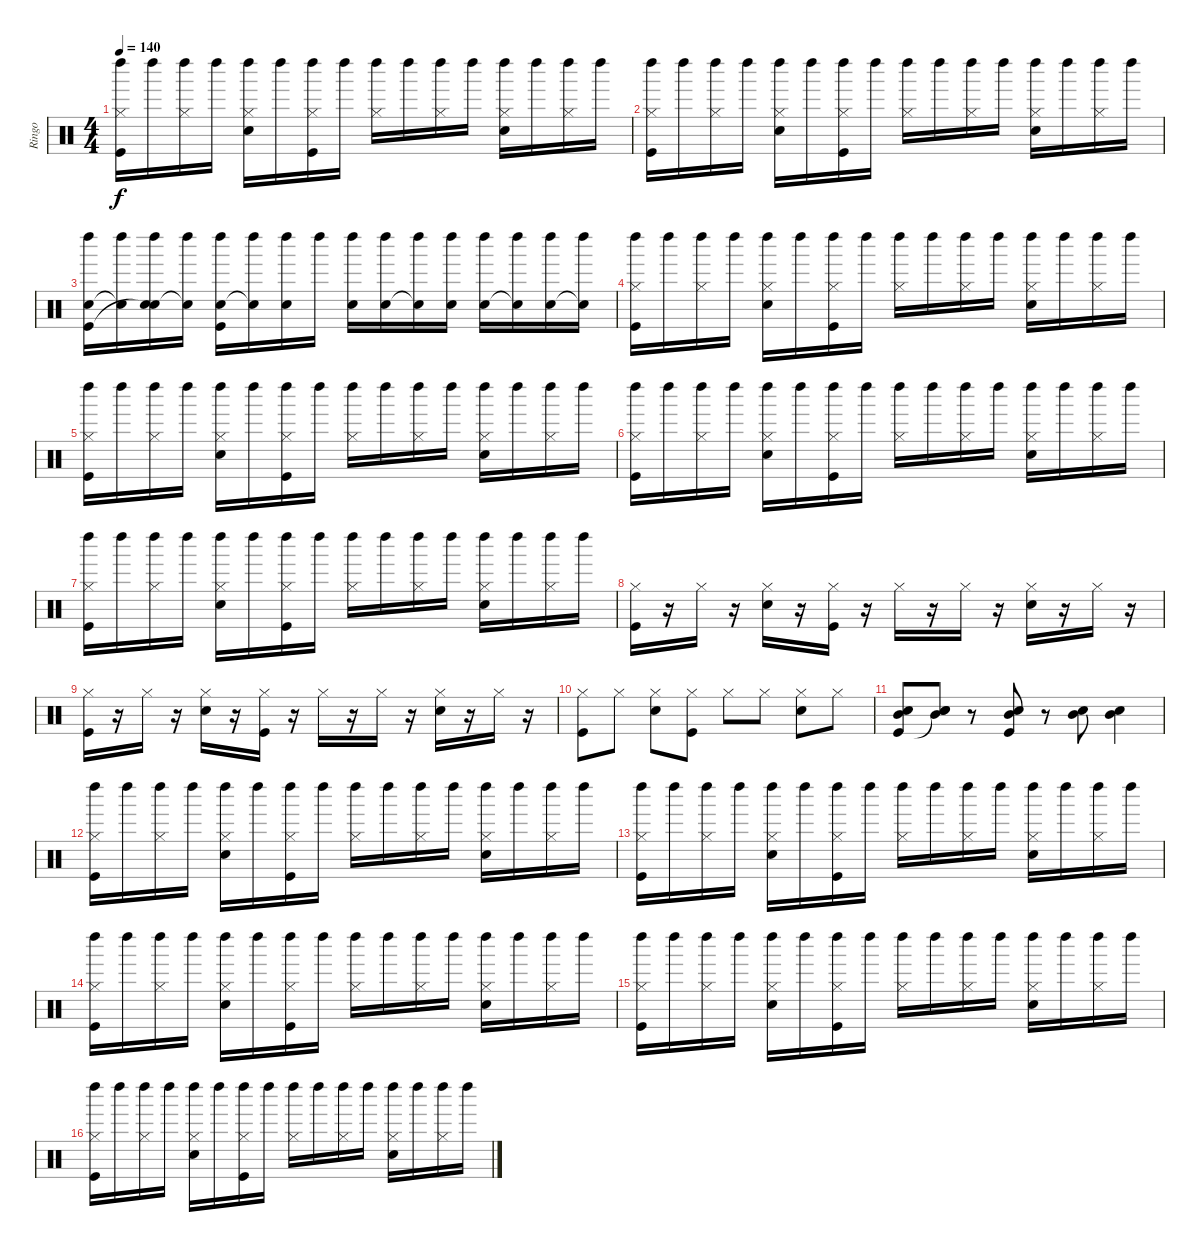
\track ("Ringo" "Ringo") {instrument percussion}
\staff {score}
\articulation defaults
\ts (4 4)
\tempo 140
\clef neutral
\ks c
("Left Maraca (hit)" "Hi-Hat (closed)" "Kick (hit)").16{dy f} "Left Maraca (hit)".16 ("Left Maraca (hit)" "Hi-Hat (closed)").16 "Left Maraca (hit)".16 ("Left Maraca (hit)" "Hi-Hat (closed)" "Snare (hit) 2").16 "Left Maraca (hit)".16 ("Left Maraca (hit)" "Hi-Hat (closed)" "Kick (hit)").16 "Left Maraca (hit)".16 ("Left Maraca (hit)" "Hi-Hat (closed)").16 "Left Maraca (hit)".16 ("Left Maraca (hit)" "Hi-Hat (closed)").16 "Left Maraca (hit)".16 ("Left Maraca (hit)" "Hi-Hat (closed)" "Snare (hit) 2").16 "Left Maraca (hit)".16 ("Left Maraca (hit)" "Hi-Hat (closed)").16 "Left Maraca (hit)".16 |
("Left Maraca (hit)" "Hi-Hat (closed)" "Kick (hit)").16 "Left Maraca (hit)".16 ("Left Maraca (hit)" "Hi-Hat (closed)").16 "Left Maraca (hit)".16 ("Left Maraca (hit)" "Hi-Hat (closed)" "Snare (hit) 2").16 "Left Maraca (hit)".16 ("Left Maraca (hit)" "Hi-Hat (closed)" "Kick (hit)").16 "Left Maraca (hit)".16 ("Left Maraca (hit)" "Hi-Hat (closed)").16 "Left Maraca (hit)".16 ("Left Maraca (hit)" "Hi-Hat (closed)").16 "Left Maraca (hit)".16 ("Left Maraca (hit)" "Hi-Hat (closed)" "Snare (hit) 2").16 "Left Maraca (hit)".16 ("Left Maraca (hit)" "Hi-Hat (closed)").16 "Left Maraca (hit)".16 |
("Left Maraca (hit)" "Snare (hit) 2" "Kick (hit)").16 ("Left Maraca (hit)" "Snare (hit)"{t}).16 ("Left Maraca (hit)" "Snare (hit) 2" "Snare (hit)"{t}).16 ("Left Maraca (hit)" "Snare (hit)"{t}).16 ("Left Maraca (hit)" "Snare (hit) 2" "Kick (hit)").16 ("Left Maraca (hit)" "Snare (hit)"{t}).16 ("Left Maraca (hit)" "Snare (hit) 2").16 "Left Maraca (hit)".16 ("Left Maraca (hit)" "Snare (hit) 2").16 ("Left Maraca (hit)" "Snare (hit) 2").16 ("Left Maraca (hit)" "Snare (hit) 2"{t}).16 ("Left Maraca (hit)" "Snare (hit) 2").16 ("Left Maraca (hit)" "Snare (hit) 2").16 ("Left Maraca (hit)" "Snare (hit)"{t}).16 ("Left Maraca (hit)" "Snare (hit) 2").16 ("Left Maraca (hit)" "Snare (hit)"{t}).16 |
("Left Maraca (hit)" "Hi-Hat (closed)" "Kick (hit)").16 "Left Maraca (hit)".16 ("Left Maraca (hit)" "Hi-Hat (closed)").16 "Left Maraca (hit)".16 ("Left Maraca (hit)" "Hi-Hat (closed)" "Snare (hit) 2").16 "Left Maraca (hit)".16 ("Left Maraca (hit)" "Hi-Hat (closed)" "Kick (hit)").16 "Left Maraca (hit)".16 ("Left Maraca (hit)" "Hi-Hat (closed)").16 "Left Maraca (hit)".16 ("Left Maraca (hit)" "Hi-Hat (closed)").16 "Left Maraca (hit)".16 ("Left Maraca (hit)" "Hi-Hat (closed)" "Snare (hit) 2").16 "Left Maraca (hit)".16 ("Left Maraca (hit)" "Hi-Hat (closed)").16 "Left Maraca (hit)".16 |
("Left Maraca (hit)" "Hi-Hat (closed)" "Kick (hit)").16 "Left Maraca (hit)".16 ("Left Maraca (hit)" "Hi-Hat (closed)").16 "Left Maraca (hit)".16 ("Left Maraca (hit)" "Hi-Hat (closed)" "Snare (hit) 2").16 "Left Maraca (hit)".16 ("Left Maraca (hit)" "Hi-Hat (closed)" "Kick (hit)").16 "Left Maraca (hit)".16 ("Left Maraca (hit)" "Hi-Hat (closed)").16 "Left Maraca (hit)".16 ("Left Maraca (hit)" "Hi-Hat (closed)").16 "Left Maraca (hit)".16 ("Left Maraca (hit)" "Hi-Hat (closed)" "Snare (hit) 2").16 "Left Maraca (hit)".16 ("Left Maraca (hit)" "Hi-Hat (closed)").16 "Left Maraca (hit)".16 |
("Left Maraca (hit)" "Hi-Hat (closed)" "Kick (hit)").16 "Left Maraca (hit)".16 ("Left Maraca (hit)" "Hi-Hat (closed)").16 "Left Maraca (hit)".16 ("Left Maraca (hit)" "Hi-Hat (closed)" "Snare (hit) 2").16 "Left Maraca (hit)".16 ("Left Maraca (hit)" "Hi-Hat (closed)" "Kick (hit)").16 "Left Maraca (hit)".16 ("Left Maraca (hit)" "Hi-Hat (closed)").16 "Left Maraca (hit)".16 ("Left Maraca (hit)" "Hi-Hat (closed)").16 "Left Maraca (hit)".16 ("Left Maraca (hit)" "Hi-Hat (closed)" "Snare (hit) 2").16 "Left Maraca (hit)".16 ("Left Maraca (hit)" "Hi-Hat (closed)").16 "Left Maraca (hit)".16 |
("Left Maraca (hit)" "Hi-Hat (closed)" "Kick (hit)").16 "Left Maraca (hit)".16 ("Left Maraca (hit)" "Hi-Hat (closed)").16 "Left Maraca (hit)".16 ("Left Maraca (hit)" "Hi-Hat (closed)" "Snare (hit) 2").16 "Left Maraca (hit)".16 ("Left Maraca (hit)" "Hi-Hat (closed)" "Kick (hit)").16 "Left Maraca (hit)".16 ("Left Maraca (hit)" "Hi-Hat (closed)").16 "Left Maraca (hit)".16 ("Left Maraca (hit)" "Hi-Hat (closed)").16 "Left Maraca (hit)".16 ("Left Maraca (hit)" "Hi-Hat (closed)" "Snare (hit) 2").16 "Left Maraca (hit)".16 ("Left Maraca (hit)" "Hi-Hat (closed)").16 "Left Maraca (hit)".16 |
("Hi-Hat (closed)" "Kick (hit)").16 r.16 "Hi-Hat (closed)".16 r.16 ("Hi-Hat (closed)" "Snare (hit) 2").16 r.16 ("Hi-Hat (closed)" "Kick (hit)").16 r.16 "Hi-Hat (closed)".16 r.16 "Hi-Hat (closed)".16 r.16 ("Hi-Hat (closed)" "Snare (hit) 2").16 r.16 "Hi-Hat (closed)".16 r.16 |
("Hi-Hat (closed)" "Kick (hit)").16 r.16 "Hi-Hat (closed)".16 r.16 ("Hi-Hat (closed)" "Snare (hit) 2").16 r.16 ("Hi-Hat (closed)" "Kick (hit)").16 r.16 "Hi-Hat (closed)".16 r.16 "Hi-Hat (closed)".16 r.16 ("Hi-Hat (closed)" "Snare (hit) 2").16 r.16 "Hi-Hat (closed)".16 r.16 |
("Hi-Hat (closed)" "Kick (hit)").8 "Hi-Hat (closed)".8 ("Hi-Hat (closed)" "Snare (hit) 2").8 ("Hi-Hat (closed)" "Kick (hit)").8 "Hi-Hat (closed)".8 "Hi-Hat (closed)".8 ("Hi-Hat (closed)" "Snare (hit) 2").8 "Hi-Hat (closed)".8 |
("Mid Tom (hit)" "Snare (hit) 2" "Kick (hit)").8 ("Mid Tom (hit)" "Snare (hit) 2" "Snare (hit)"{t}).8 r.8 ("Mid Tom (hit)" "Snare (hit) 2" "Kick (hit)").8 r.8 ("Mid Tom (hit)" "Snare (hit) 2").8 ("Mid Tom (hit)" "Snare (hit) 2").4 |
("Left Maraca (hit)" "Hi-Hat (closed)" "Kick (hit)").16 "Left Maraca (hit)".16 ("Left Maraca (hit)" "Hi-Hat (closed)").16 "Left Maraca (hit)".16 ("Left Maraca (hit)" "Hi-Hat (closed)" "Snare (hit) 2").16 "Left Maraca (hit)".16 ("Left Maraca (hit)" "Hi-Hat (closed)" "Kick (hit)").16 "Left Maraca (hit)".16 ("Left Maraca (hit)" "Hi-Hat (closed)").16 "Left Maraca (hit)".16 ("Left Maraca (hit)" "Hi-Hat (closed)").16 "Left Maraca (hit)".16 ("Left Maraca (hit)" "Hi-Hat (closed)" "Snare (hit) 2").16 "Left Maraca (hit)".16 ("Left Maraca (hit)" "Hi-Hat (closed)").16 "Left Maraca (hit)".16 |
("Left Maraca (hit)" "Hi-Hat (closed)" "Kick (hit)").16 "Left Maraca (hit)".16 ("Left Maraca (hit)" "Hi-Hat (closed)").16 "Left Maraca (hit)".16 ("Left Maraca (hit)" "Hi-Hat (closed)" "Snare (hit) 2").16 "Left Maraca (hit)".16 ("Left Maraca (hit)" "Hi-Hat (closed)" "Kick (hit)").16 "Left Maraca (hit)".16 ("Left Maraca (hit)" "Hi-Hat (closed)").16 "Left Maraca (hit)".16 ("Left Maraca (hit)" "Hi-Hat (closed)").16 "Left Maraca (hit)".16 ("Left Maraca (hit)" "Hi-Hat (closed)" "Snare (hit) 2").16 "Left Maraca (hit)".16 ("Left Maraca (hit)" "Hi-Hat (closed)").16 "Left Maraca (hit)".16 |
("Left Maraca (hit)" "Hi-Hat (closed)" "Kick (hit)").16 "Left Maraca (hit)".16 ("Left Maraca (hit)" "Hi-Hat (closed)").16 "Left Maraca (hit)".16 ("Left Maraca (hit)" "Hi-Hat (closed)" "Snare (hit) 2").16 "Left Maraca (hit)".16 ("Left Maraca (hit)" "Hi-Hat (closed)" "Kick (hit)").16 "Left Maraca (hit)".16 ("Left Maraca (hit)" "Hi-Hat (closed)").16 "Left Maraca (hit)".16 ("Left Maraca (hit)" "Hi-Hat (closed)").16 "Left Maraca (hit)".16 ("Left Maraca (hit)" "Hi-Hat (closed)" "Snare (hit) 2").16 "Left Maraca (hit)".16 ("Left Maraca (hit)" "Hi-Hat (closed)").16 "Left Maraca (hit)".16 |
("Left Maraca (hit)" "Hi-Hat (closed)" "Kick (hit)").16 "Left Maraca (hit)".16 ("Left Maraca (hit)" "Hi-Hat (closed)").16 "Left Maraca (hit)".16 ("Left Maraca (hit)" "Hi-Hat (closed)" "Snare (hit) 2").16 "Left Maraca (hit)".16 ("Left Maraca (hit)" "Hi-Hat (closed)" "Kick (hit)").16 "Left Maraca (hit)".16 ("Left Maraca (hit)" "Hi-Hat (closed)").16 "Left Maraca (hit)".16 ("Left Maraca (hit)" "Hi-Hat (closed)").16 "Left Maraca (hit)".16 ("Left Maraca (hit)" "Hi-Hat (closed)" "Snare (hit) 2").16 "Left Maraca (hit)".16 ("Left Maraca (hit)" "Hi-Hat (closed)").16 "Left Maraca (hit)".16 |
("Left Maraca (hit)" "Hi-Hat (closed)" "Kick (hit)").16 "Left Maraca (hit)".16 ("Left Maraca (hit)" "Hi-Hat (closed)").16 "Left Maraca (hit)".16 ("Left Maraca (hit)" "Hi-Hat (closed)" "Snare (hit) 2").16 "Left Maraca (hit)".16 ("Left Maraca (hit)" "Hi-Hat (closed)" "Kick (hit)").16 "Left Maraca (hit)".16 ("Left Maraca (hit)" "Hi-Hat (closed)").16 "Left Maraca (hit)".16 ("Left Maraca (hit)" "Hi-Hat (closed)").16 "Left Maraca (hit)".16 ("Left Maraca (hit)" "Hi-Hat (closed)" "Snare (hit) 2").16 "Left Maraca (hit)".16 ("Left Maraca (hit)" "Hi-Hat (closed)").16 "Left Maraca (hit)".16
